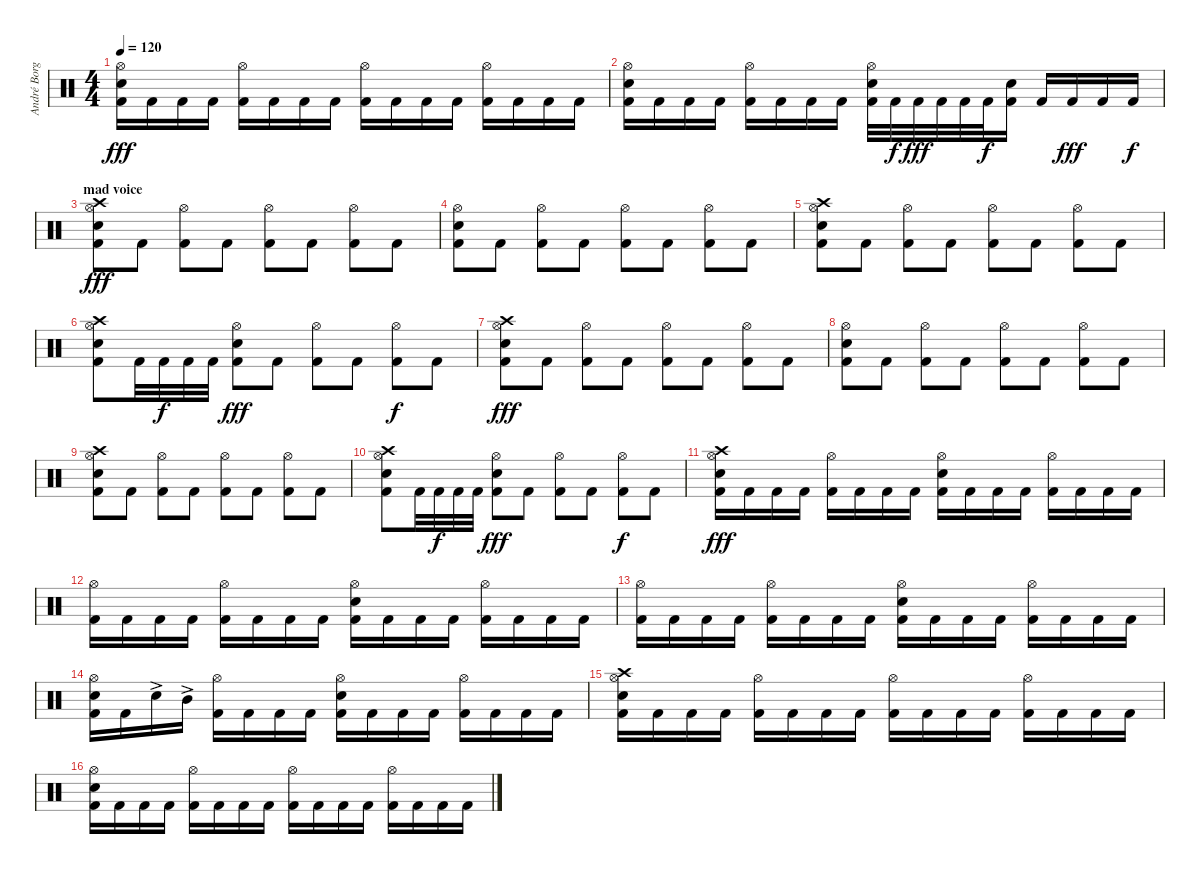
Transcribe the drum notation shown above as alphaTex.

\track ("André Borgman" "André Borg") {instrument percussion}
\staff {score}
\articulation defaults
\ts (4 4)
\tempo 120
\clef neutral
\ks c
("Hi-Hat (open)" "Electric Snare (hit)" "Kick (hit) 2").16{dy fff} "Kick (hit) 2".16 "Kick (hit) 2".16 "Kick (hit) 2".16 ("Hi-Hat (open)" "Kick (hit) 2").16 "Kick (hit) 2".16 "Kick (hit) 2".16 "Kick (hit) 2".16 ("Hi-Hat (open)" "Kick (hit) 2").16 "Kick (hit) 2".16 "Kick (hit) 2".16 "Kick (hit) 2".16 ("Hi-Hat (open)" "Kick (hit) 2").16 "Kick (hit) 2".16 "Kick (hit) 2".16 "Kick (hit) 2".16 |
("Hi-Hat (open)" "Electric Snare (hit)" "Kick (hit) 2").16 "Kick (hit) 2".16 "Kick (hit) 2".16 "Kick (hit) 2".16 ("Hi-Hat (open)" "Kick (hit) 2").16 "Kick (hit) 2".16 "Kick (hit) 2".16 "Kick (hit) 2".16 ("Hi-Hat (open)" "Electric Snare (hit)" "Kick (hit) 2").32 "Kick (hit) 2".32{dy f} "Kick (hit) 2".32{dy fff} "Kick (hit) 2".32 "Kick (hit) 2".32 "Kick (hit) 2".32{dy f} ("Electric Snare (hit)" "Kick (hit) 2").16 "Kick (hit) 2".16 "Kick (hit) 2".16{dy fff} "Kick (hit) 2".16 "Kick (hit) 2".16{dy f} |
\section ("" "mad voice")
("Crash high (hit)" "Hi-Hat (open)" "Electric Snare (hit)" "Kick (hit) 2").8{dy fff} "Kick (hit) 2".8 ("Hi-Hat (open)" "Kick (hit) 2").8 "Kick (hit) 2".8 ("Hi-Hat (open)" "Kick (hit) 2").8 "Kick (hit) 2".8 ("Hi-Hat (open)" "Kick (hit) 2").8 "Kick (hit) 2".8 |
("Hi-Hat (open)" "Electric Snare (hit)" "Kick (hit) 2").8 "Kick (hit) 2".8 ("Hi-Hat (open)" "Kick (hit) 2").8 "Kick (hit) 2".8 ("Hi-Hat (open)" "Kick (hit) 2").8 "Kick (hit) 2".8 ("Hi-Hat (open)" "Kick (hit) 2").8 "Kick (hit) 2".8 |
("Crash high (hit)" "Hi-Hat (open)" "Electric Snare (hit)" "Kick (hit) 2").8 "Kick (hit) 2".8 ("Hi-Hat (open)" "Kick (hit) 2").8 "Kick (hit) 2".8 ("Hi-Hat (open)" "Kick (hit) 2").8 "Kick (hit) 2".8 ("Hi-Hat (open)" "Kick (hit) 2").8 "Kick (hit) 2".8 |
("Crash high (hit)" "Hi-Hat (open)" "Electric Snare (hit)" "Kick (hit) 2").8 "Kick (hit) 2".32 "Kick (hit) 2".32{dy f} "Kick (hit) 2".32 "Kick (hit) 2".32 ("Hi-Hat (open)" "Electric Snare (hit)" "Kick (hit) 2").8{dy fff} "Kick (hit) 2".8 ("Hi-Hat (open)" "Kick (hit) 2").8 "Kick (hit) 2".8 ("Hi-Hat (open)" "Kick (hit) 2").8{dy f} "Kick (hit) 2".8 |
("Crash high (hit)" "Hi-Hat (open)" "Electric Snare (hit)" "Kick (hit) 2").8{dy fff} "Kick (hit) 2".8 ("Hi-Hat (open)" "Kick (hit) 2").8 "Kick (hit) 2".8 ("Hi-Hat (open)" "Kick (hit) 2").8 "Kick (hit) 2".8 ("Hi-Hat (open)" "Kick (hit) 2").8 "Kick (hit) 2".8 |
("Hi-Hat (open)" "Electric Snare (hit)" "Kick (hit) 2").8 "Kick (hit) 2".8 ("Hi-Hat (open)" "Kick (hit) 2").8 "Kick (hit) 2".8 ("Hi-Hat (open)" "Kick (hit) 2").8 "Kick (hit) 2".8 ("Hi-Hat (open)" "Kick (hit) 2").8 "Kick (hit) 2".8 |
("Crash high (hit)" "Hi-Hat (open)" "Electric Snare (hit)" "Kick (hit) 2").8 "Kick (hit) 2".8 ("Hi-Hat (open)" "Kick (hit) 2").8 "Kick (hit) 2".8 ("Hi-Hat (open)" "Kick (hit) 2").8 "Kick (hit) 2".8 ("Hi-Hat (open)" "Kick (hit) 2").8 "Kick (hit) 2".8 |
("Crash high (hit)" "Hi-Hat (open)" "Electric Snare (hit)" "Kick (hit) 2").8 "Kick (hit) 2".32 "Kick (hit) 2".32{dy f} "Kick (hit) 2".32 "Kick (hit) 2".32 ("Hi-Hat (open)" "Electric Snare (hit)" "Kick (hit) 2").8{dy fff} "Kick (hit) 2".8 ("Hi-Hat (open)" "Kick (hit) 2").8 "Kick (hit) 2".8 ("Hi-Hat (open)" "Kick (hit) 2").8{dy f} "Kick (hit) 2".8 |
("Crash high (hit)" "Hi-Hat (open)" "Electric Snare (hit)" "Kick (hit) 2").16{dy fff} "Kick (hit) 2".16 "Kick (hit) 2".16 "Kick (hit) 2".16 ("Hi-Hat (open)" "Kick (hit) 2").16 "Kick (hit) 2".16 "Kick (hit) 2".16 "Kick (hit) 2".16 ("Hi-Hat (open)" "Electric Snare (hit)" "Kick (hit) 2").16 "Kick (hit) 2".16 "Kick (hit) 2".16 "Kick (hit) 2".16 ("Hi-Hat (open)" "Kick (hit) 2").16 "Kick (hit) 2".16 "Kick (hit) 2".16 "Kick (hit) 2".16 |
("Hi-Hat (open)" "Kick (hit) 2").16 "Kick (hit) 2".16 "Kick (hit) 2".16 "Kick (hit) 2".16 ("Hi-Hat (open)" "Kick (hit) 2").16 "Kick (hit) 2".16 "Kick (hit) 2".16 "Kick (hit) 2".16 ("Hi-Hat (open)" "Electric Snare (hit)" "Kick (hit) 2").16 "Kick (hit) 2".16 "Kick (hit) 2".16 "Kick (hit) 2".16 ("Hi-Hat (open)" "Kick (hit) 2").16 "Kick (hit) 2".16 "Kick (hit) 2".16 "Kick (hit) 2".16 |
("Hi-Hat (open)" "Kick (hit) 2").16 "Kick (hit) 2".16 "Kick (hit) 2".16 "Kick (hit) 2".16 ("Hi-Hat (open)" "Kick (hit) 2").16 "Kick (hit) 2".16 "Kick (hit) 2".16 "Kick (hit) 2".16 ("Hi-Hat (open)" "Electric Snare (hit)" "Kick (hit) 2").16 "Kick (hit) 2".16 "Kick (hit) 2".16 "Kick (hit) 2".16 ("Hi-Hat (open)" "Kick (hit) 2").16 "Kick (hit) 2".16 "Kick (hit) 2".16 "Kick (hit) 2".16 |
("Hi-Hat (open)" "Electric Snare (hit)" "Kick (hit) 2").16 "Kick (hit) 2".16 "Electric Snare (hit)"{ac}.16 "Mid Tom (hit)"{ac}.16 ("Hi-Hat (open)" "Kick (hit) 2").16 "Kick (hit) 2".16 "Kick (hit) 2".16 "Kick (hit) 2".16 ("Hi-Hat (open)" "Electric Snare (hit)" "Kick (hit) 2").16 "Kick (hit) 2".16 "Kick (hit) 2".16 "Kick (hit) 2".16 ("Hi-Hat (open)" "Kick (hit) 2").16 "Kick (hit) 2".16 "Kick (hit) 2".16 "Kick (hit) 2".16 |
("Crash high (hit)" "Hi-Hat (open)" "Electric Snare (hit)" "Kick (hit) 2").16 "Kick (hit) 2".16 "Kick (hit) 2".16 "Kick (hit) 2".16 ("Hi-Hat (open)" "Kick (hit) 2").16 "Kick (hit) 2".16 "Kick (hit) 2".16 "Kick (hit) 2".16 ("Hi-Hat (open)" "Kick (hit) 2").16 "Kick (hit) 2".16 "Kick (hit) 2".16 "Kick (hit) 2".16 ("Hi-Hat (open)" "Kick (hit) 2").16 "Kick (hit) 2".16 "Kick (hit) 2".16 "Kick (hit) 2".16 |
("Hi-Hat (open)" "Electric Snare (hit)" "Kick (hit) 2").16 "Kick (hit) 2".16 "Kick (hit) 2".16 "Kick (hit) 2".16 ("Hi-Hat (open)" "Kick (hit) 2").16 "Kick (hit) 2".16 "Kick (hit) 2".16 "Kick (hit) 2".16 ("Hi-Hat (open)" "Kick (hit) 2").16 "Kick (hit) 2".16 "Kick (hit) 2".16 "Kick (hit) 2".16 ("Hi-Hat (open)" "Kick (hit) 2").16 "Kick (hit) 2".16 "Kick (hit) 2".16 "Kick (hit) 2".16
